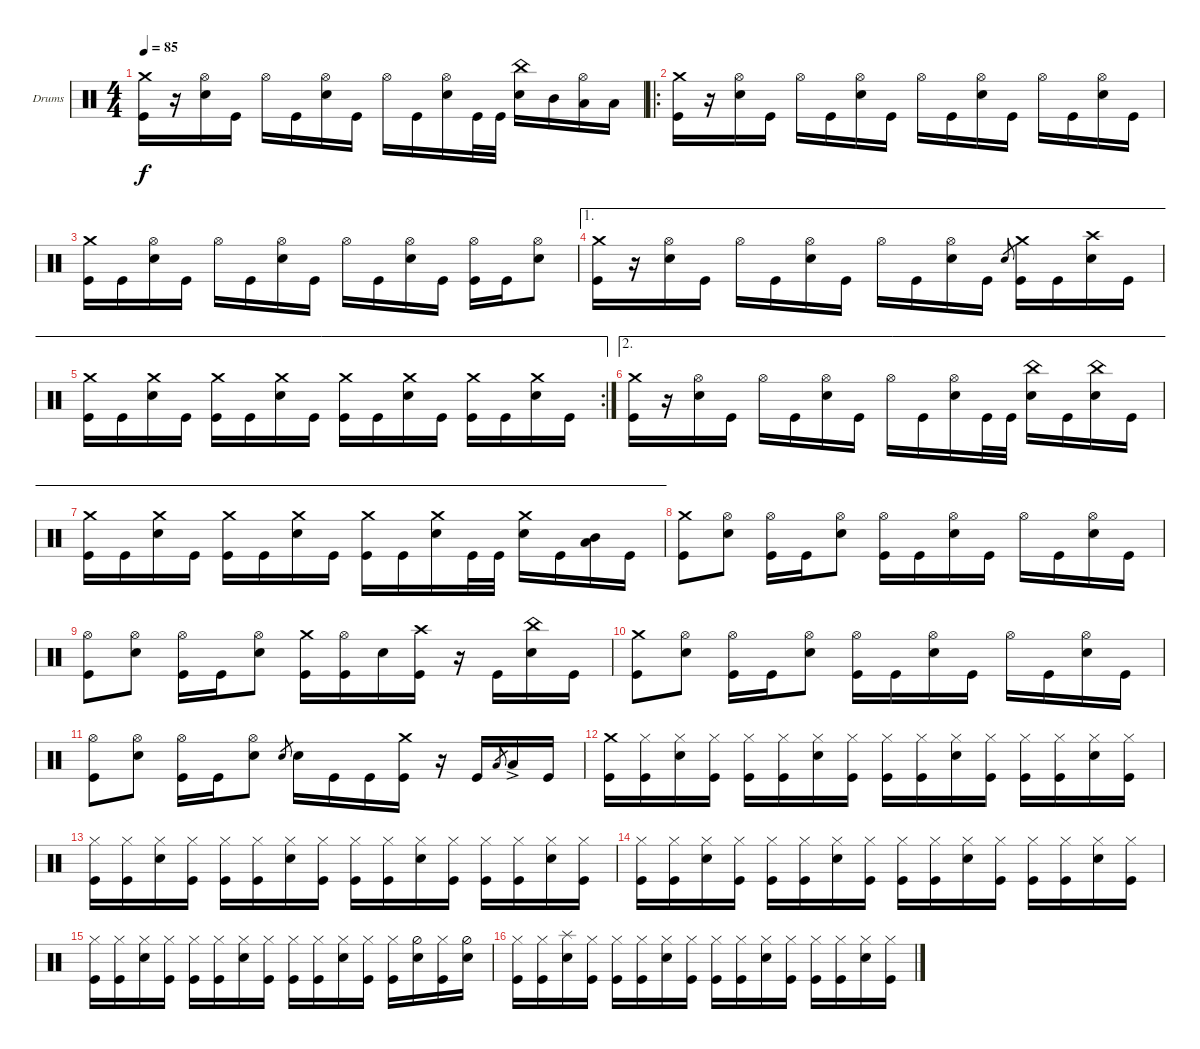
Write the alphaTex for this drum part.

\defaultSystemsLayout 4
\bracketExtendMode groupsimilarinstruments
\firstSystemTrackNameOrientation horizontal
\otherSystemsTrackNameOrientation horizontal
\track ("Drumkit" "Drums") {instrument percussion}
\staff {score}
\articulation defaults
\ts (4 4)
\tempo 85
\clef neutral
\ks c
("Kick (hit)" "Crash medium (hit)").16{dy f} r.16 ("Snare (hit) 2" "Hi-Hat (open)").16 "Kick (hit)".16 "Hi-Hat (open)".16 "Kick (hit)".16 ("Snare (hit) 2" "Hi-Hat (open)").16 "Kick (hit)".16 "Hi-Hat (open)".16 "Kick (hit)".16 ("Snare (hit) 2" "Hi-Hat (open)").16 "Kick (hit)".32 "Kick (hit)".32 ("Snare (hit) 2" "China (hit)").16 "Mid Tom (hit)".16 ("Low Tom (hit)" "Hi-Hat (open)").16 "Low Tom (hit)".16 |
\ro
("Kick (hit)" "Crash medium (hit)").16 r.16 ("Snare (hit) 2" "Hi-Hat (open)").16 "Kick (hit)".16 "Hi-Hat (open)".16 "Kick (hit)".16 ("Snare (hit) 2" "Hi-Hat (open)").16 "Kick (hit)".16 "Hi-Hat (open)".16 "Kick (hit)".16 ("Snare (hit) 2" "Hi-Hat (open)").16 "Kick (hit)".16 "Hi-Hat (open)".16 "Kick (hit)".16 ("Snare (hit) 2" "Hi-Hat (open)").16 "Kick (hit)".16 |
("Kick (hit)" "Crash medium (hit)").16 "Kick (hit)".16 ("Snare (hit) 2" "Hi-Hat (open)").16 "Kick (hit)".16 "Hi-Hat (open)".16 "Kick (hit)".16 ("Snare (hit) 2" "Hi-Hat (open)").16 "Kick (hit)".16 "Hi-Hat (open)".16 "Kick (hit)".16 ("Snare (hit) 2" "Hi-Hat (open)").16 "Kick (hit)".16 ("Hi-Hat (open)" "Kick (hit)").16 "Kick (hit)".16 ("Snare (hit) 2" "Hi-Hat (open)").8 |
\ae 1
("Kick (hit)" "Crash medium (hit)").16 r.16 ("Snare (hit) 2" "Hi-Hat (open)").16 "Kick (hit)".16 "Hi-Hat (open)".16 "Kick (hit)".16 ("Snare (hit) 2" "Hi-Hat (open)").16 "Kick (hit)".16 "Hi-Hat (open)".16 "Kick (hit)".16 ("Snare (hit) 2" "Hi-Hat (open)").16 "Kick (hit)".16 "Snare (hit) 2".8{gr} ("Kick (hit)" "Crash medium (hit)").16 "Kick (hit)".16 ("Snare (hit) 2" "Crash high (hit)").16 "Kick (hit)".16 |
\ae 1
\rc 2
("Kick (hit)" "Crash medium (hit)").16 "Kick (hit)".16 ("Snare (hit) 2" "Crash medium (hit)").16 "Kick (hit)".16 ("Kick (hit)" "Crash medium (hit)").16 "Kick (hit)".16 ("Snare (hit) 2" "Crash medium (hit)").16 "Kick (hit)".16 ("Kick (hit)" "Crash medium (hit)").16 "Kick (hit)".16 ("Snare (hit) 2" "Crash medium (hit)").16 "Kick (hit)".16 ("Kick (hit)" "Crash medium (hit)").16 "Kick (hit)".16 ("Snare (hit) 2" "Crash medium (hit)").16 "Kick (hit)".16 |
\ae 2
("Kick (hit)" "Crash medium (hit)").16 r.16 ("Snare (hit) 2" "Hi-Hat (open)").16 "Kick (hit)".16 "Hi-Hat (open)".16 "Kick (hit)".16 ("Snare (hit) 2" "Hi-Hat (open)").16 "Kick (hit)".16 "Hi-Hat (open)".16 "Kick (hit)".16 ("Snare (hit) 2" "Hi-Hat (open)").16 "Kick (hit)".32 "Kick (hit)".32 ("Snare (hit) 2" "China (hit)").16 "Kick (hit)".16 ("Snare (hit) 2" "China (hit)").16 "Kick (hit)".16 |
\ae 2
("Kick (hit)" "Crash medium (hit)").16 "Kick (hit)".16 ("Snare (hit) 2" "Crash medium (hit)").16 "Kick (hit)".16 ("Kick (hit)" "Crash medium (hit)").16 "Kick (hit)".16 ("Snare (hit) 2" "Crash medium (hit)").16 "Kick (hit)".16 ("Kick (hit)" "Crash medium (hit)").16 "Kick (hit)".16 ("Snare (hit) 2" "Crash medium (hit)").16 "Kick (hit)".32 "Kick (hit)".32 ("Crash medium (hit)" "Snare (hit) 2").16 "Kick (hit)".16 ("Low Tom (hit)" "Mid Tom (hit)").16 "Kick (hit)".16 |
("Kick (hit)" "Crash medium (hit)").8 ("Snare (hit) 2" "Hi-Hat (open)").8 ("Kick (hit)" "Hi-Hat (open)").16 "Kick (hit)".16 ("Snare (hit) 2" "Hi-Hat (open)").8 ("Kick (hit)" "Hi-Hat (open)").16 "Kick (hit)".16 ("Snare (hit) 2" "Hi-Hat (open)").16 "Kick (hit)".16 "Hi-Hat (open)".16 "Kick (hit)".16 ("Snare (hit) 2" "Hi-Hat (open)").16 "Kick (hit)".16 |
("Kick (hit)" "Hi-Hat (open)").8 ("Snare (hit) 2" "Hi-Hat (open)").8 ("Kick (hit)" "Hi-Hat (open)").16 "Kick (hit)".16 ("Snare (hit) 2" "Hi-Hat (open)").8 ("Kick (hit)" "Crash medium (hit)").16 ("Kick (hit)" "Hi-Hat (open)").16 "Snare (hit) 2".16 ("Kick (hit)" "Crash high (hit)").16 r.16 "Kick (hit)".16 ("Snare (hit) 2" "China (hit)").16 "Kick (hit)".16 |
("Kick (hit)" "Crash medium (hit)").8 ("Snare (hit) 2" "Hi-Hat (open)").8 ("Kick (hit)" "Hi-Hat (open)").16 "Kick (hit)".16 ("Snare (hit) 2" "Hi-Hat (open)").8 ("Kick (hit)" "Hi-Hat (open)").16 "Kick (hit)".16 ("Snare (hit) 2" "Hi-Hat (open)").16 "Kick (hit)".16 "Hi-Hat (open)".16 "Kick (hit)".16 ("Snare (hit) 2" "Hi-Hat (open)").16 "Kick (hit)".16 |
("Kick (hit)" "Hi-Hat (open)").8 ("Snare (hit) 2" "Hi-Hat (open)").8 ("Kick (hit)" "Hi-Hat (open)").16 "Kick (hit)".16 ("Snare (hit) 2" "Hi-Hat (open)").8 "Snare (hit) 2".8{gr} "Snare (hit) 2".16 "Kick (hit)".16 "Kick (hit)".16 ("Kick (hit)" "Crash medium (hit)").16 r.16 "Kick (hit)".16 "Low Tom (hit)".8{gr} "Low Tom (hit)"{ac}.16 "Kick (hit)".16 |
("Kick (hit)" "Crash medium (hit)").16 ("Kick (hit)" "Hi-Hat (closed)").16 ("Snare (hit) 2" "Hi-Hat (closed)").16 ("Kick (hit)" "Hi-Hat (closed)").16 ("Kick (hit)" "Hi-Hat (closed)").16 ("Kick (hit)" "Hi-Hat (closed)").16 ("Snare (hit) 2" "Hi-Hat (closed)").16 ("Kick (hit)" "Hi-Hat (closed)").16 ("Kick (hit)" "Hi-Hat (closed)").16 ("Kick (hit)" "Hi-Hat (closed)").16 ("Snare (hit) 2" "Hi-Hat (closed)").16 ("Kick (hit)" "Hi-Hat (closed)").16 ("Kick (hit)" "Hi-Hat (closed)").16 ("Kick (hit)" "Hi-Hat (closed)").16 ("Snare (hit) 2" "Hi-Hat (closed)").16 ("Kick (hit)" "Hi-Hat (closed)").16 |
("Kick (hit)" "Hi-Hat (closed)").16 ("Kick (hit)" "Hi-Hat (closed)").16 ("Snare (hit) 2" "Hi-Hat (closed)").16 ("Kick (hit)" "Hi-Hat (closed)").16 ("Kick (hit)" "Hi-Hat (closed)").16 ("Kick (hit)" "Hi-Hat (closed)").16 ("Snare (hit) 2" "Hi-Hat (closed)").16 ("Kick (hit)" "Hi-Hat (closed)").16 ("Kick (hit)" "Hi-Hat (closed)").16 ("Kick (hit)" "Hi-Hat (closed)").16 ("Snare (hit) 2" "Hi-Hat (closed)").16 ("Kick (hit)" "Hi-Hat (closed)").16 ("Kick (hit)" "Hi-Hat (closed)").16 ("Kick (hit)" "Hi-Hat (closed)").16 ("Snare (hit) 2" "Hi-Hat (closed)").16 ("Kick (hit)" "Hi-Hat (closed)").16 |
("Kick (hit)" "Hi-Hat (closed)").16 ("Kick (hit)" "Hi-Hat (closed)").16 ("Snare (hit) 2" "Hi-Hat (closed)").16 ("Kick (hit)" "Hi-Hat (closed)").16 ("Kick (hit)" "Hi-Hat (closed)").16 ("Kick (hit)" "Hi-Hat (closed)").16 ("Snare (hit) 2" "Hi-Hat (closed)").16 ("Kick (hit)" "Hi-Hat (closed)").16 ("Kick (hit)" "Hi-Hat (closed)").16 ("Kick (hit)" "Hi-Hat (closed)").16 ("Snare (hit) 2" "Hi-Hat (closed)").16 ("Kick (hit)" "Hi-Hat (closed)").16 ("Kick (hit)" "Hi-Hat (closed)").16 ("Kick (hit)" "Hi-Hat (closed)").16 ("Snare (hit) 2" "Hi-Hat (closed)").16 ("Kick (hit)" "Hi-Hat (closed)").16 |
("Kick (hit)" "Hi-Hat (closed)").16 ("Kick (hit)" "Hi-Hat (closed)").16 ("Snare (hit) 2" "Hi-Hat (closed)").16 ("Kick (hit)" "Hi-Hat (closed)").16 ("Kick (hit)" "Hi-Hat (closed)").16 ("Kick (hit)" "Hi-Hat (closed)").16 ("Snare (hit) 2" "Hi-Hat (closed)").16 ("Kick (hit)" "Hi-Hat (closed)").16 ("Kick (hit)" "Hi-Hat (closed)").16 ("Kick (hit)" "Hi-Hat (closed)").16 ("Snare (hit) 2" "Hi-Hat (closed)").16 ("Kick (hit)" "Hi-Hat (closed)").16 ("Kick (hit)" "Hi-Hat (closed)").16 ("Snare (hit) 2" "Hi-Hat (half)").16 ("Kick (hit)" "Hi-Hat (closed)").16 ("Snare (hit) 2" "Hi-Hat (half)").16 |
("Kick (hit)" "Hi-Hat (closed)").16 ("Kick (hit)" "Hi-Hat (closed)").16 ("Snare (hit) 2" "Splash (hit)").16 ("Kick (hit)" "Hi-Hat (closed)").16 ("Kick (hit)" "Hi-Hat (closed)").16 ("Kick (hit)" "Hi-Hat (closed)").16 ("Snare (hit) 2" "Hi-Hat (closed)").16 ("Kick (hit)" "Hi-Hat (closed)").16 ("Kick (hit)" "Hi-Hat (closed)").16 ("Kick (hit)" "Hi-Hat (closed)").16 ("Snare (hit) 2" "Hi-Hat (closed)").16 ("Kick (hit)" "Hi-Hat (closed)").16 ("Kick (hit)" "Hi-Hat (closed)").16 ("Kick (hit)" "Hi-Hat (closed)").16 ("Snare (hit) 2" "Hi-Hat (closed)").16 ("Kick (hit)" "Hi-Hat (closed)").16
